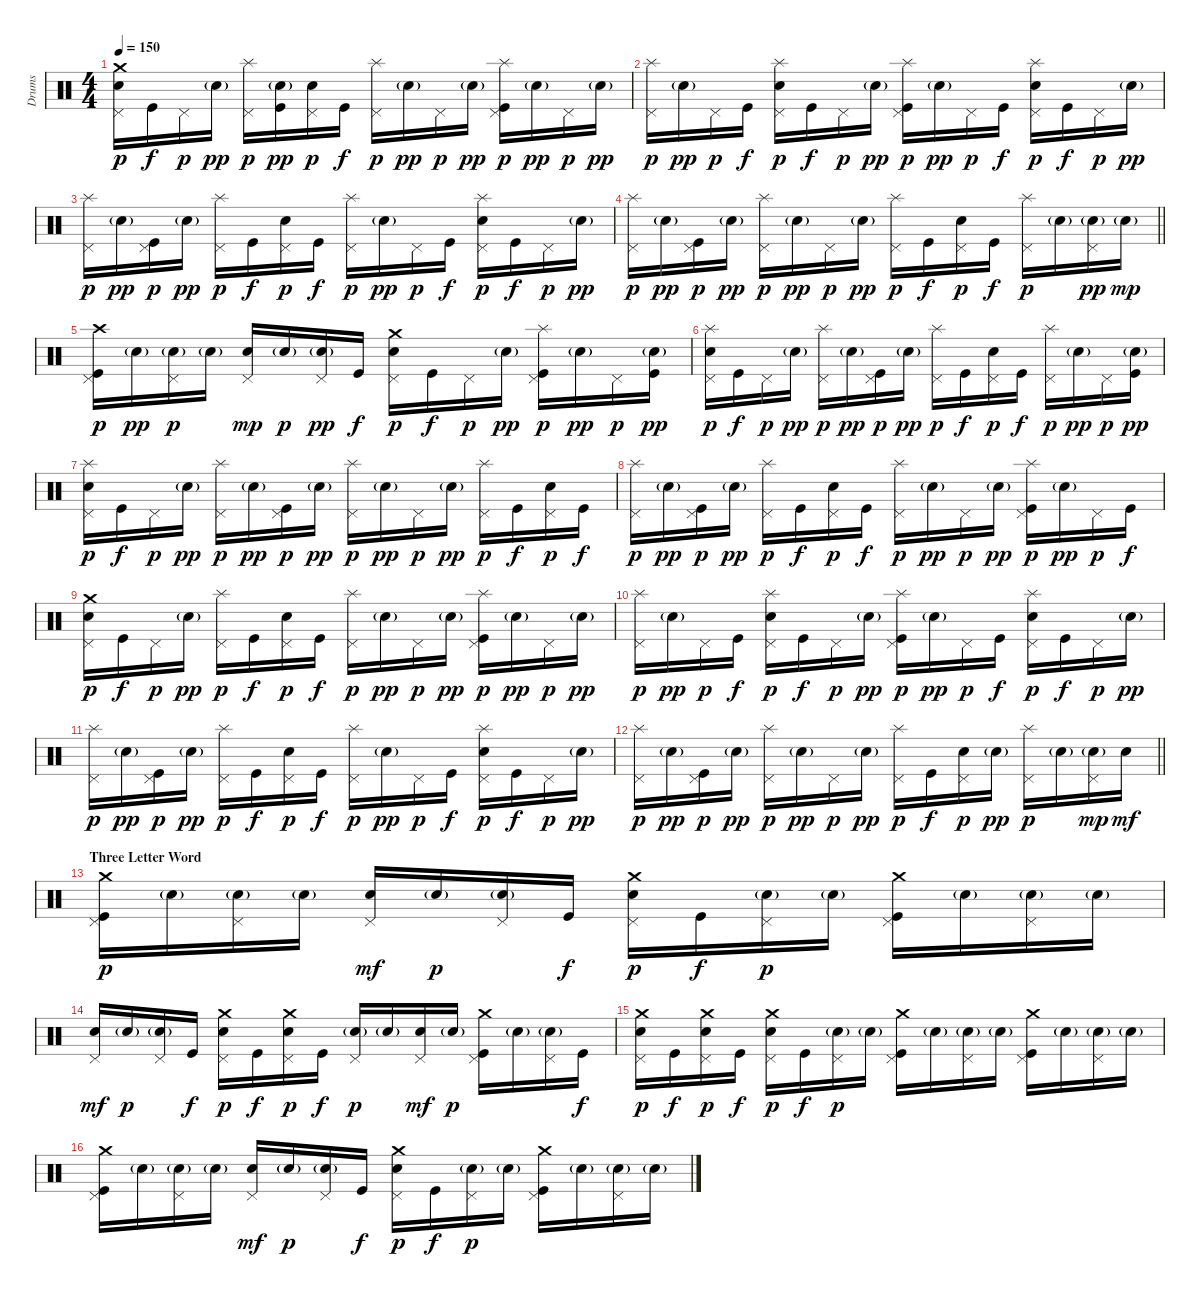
\track ("Drums" "Drums") {instrument percussion}
\staff {score}
\articulation defaults
\ts (4 4)
\tempo 150
\clef neutral
\ks c
("Crash medium (hit)" "Pedal Hi-Hat (hit)" "Electric Snare (hit)").16{dy p} "Kick (hit)".16{dy f} "Pedal Hi-Hat (hit)".16{dy p} "Electric Snare (hit)"{g}.16{dy pp} ("Splash (hit)" "Pedal Hi-Hat (hit)").16{dy p} ("Electric Snare (hit)"{g} "Kick (hit)").16{dy pp} ("Pedal Hi-Hat (hit)" "Electric Snare (hit)").16{dy p} "Kick (hit)".16{dy f} ("Splash (hit)" "Pedal Hi-Hat (hit)").16{dy p} "Electric Snare (hit)"{g}.16{dy pp} "Pedal Hi-Hat (hit)".16{dy p} "Electric Snare (hit)"{g}.16{dy pp} ("Splash (hit)" "Pedal Hi-Hat (hit)" "Kick (hit)").16{dy p} "Electric Snare (hit)"{g}.16{dy pp} "Pedal Hi-Hat (hit)".16{dy p} "Electric Snare (hit)"{g}.16{dy pp} |
("Splash (hit)" "Pedal Hi-Hat (hit)").16{dy p} "Electric Snare (hit)"{g}.16{dy pp} "Pedal Hi-Hat (hit)".16{dy p} "Kick (hit)".16{dy f} ("Splash (hit)" "Pedal Hi-Hat (hit)" "Electric Snare (hit)").16{dy p} "Kick (hit)".16{dy f} "Pedal Hi-Hat (hit)".16{dy p} "Electric Snare (hit)"{g}.16{dy pp} ("Splash (hit)" "Pedal Hi-Hat (hit)" "Kick (hit)").16{dy p} "Electric Snare (hit)"{g}.16{dy pp} "Pedal Hi-Hat (hit)".16{dy p} "Kick (hit)".16{dy f} ("Splash (hit)" "Pedal Hi-Hat (hit)" "Electric Snare (hit)").16{dy p} "Kick (hit)".16{dy f} "Pedal Hi-Hat (hit)".16{dy p} "Electric Snare (hit)"{g}.16{dy pp} |
("Splash (hit)" "Pedal Hi-Hat (hit)").16{dy p} "Electric Snare (hit)"{g}.16{dy pp} ("Pedal Hi-Hat (hit)" "Kick (hit)").16{dy p} "Electric Snare (hit)"{g}.16{dy pp} ("Splash (hit)" "Pedal Hi-Hat (hit)").16{dy p} "Kick (hit)".16{dy f} ("Pedal Hi-Hat (hit)" "Electric Snare (hit)").16{dy p} "Kick (hit)".16{dy f} ("Splash (hit)" "Pedal Hi-Hat (hit)").16{dy p} "Electric Snare (hit)"{g}.16{dy pp} "Pedal Hi-Hat (hit)".16{dy p} "Kick (hit)".16{dy f} ("Splash (hit)" "Pedal Hi-Hat (hit)" "Electric Snare (hit)").16{dy p} "Kick (hit)".16{dy f} "Pedal Hi-Hat (hit)".16{dy p} "Electric Snare (hit)"{g}.16{dy pp} |
\barLineRight lightlight
("Splash (hit)" "Pedal Hi-Hat (hit)").16{dy p} "Electric Snare (hit)"{g}.16{dy pp} ("Pedal Hi-Hat (hit)" "Kick (hit)").16{dy p} "Electric Snare (hit)"{g}.16{dy pp} ("Splash (hit)" "Pedal Hi-Hat (hit)").16{dy p} "Electric Snare (hit)"{g}.16{dy pp} "Pedal Hi-Hat (hit)".16{dy p} "Electric Snare (hit)"{g}.16{dy pp} ("Splash (hit)" "Pedal Hi-Hat (hit)").16{dy p} "Kick (hit)".16{dy f} ("Pedal Hi-Hat (hit)" "Electric Snare (hit)").16{dy p} "Kick (hit)".16{dy f} ("Splash (hit)" "Pedal Hi-Hat (hit)").16{dy p} "Electric Snare (hit)"{g}.16 ("Pedal Hi-Hat (hit)" "Electric Snare (hit)"{g}).16{dy pp} "Electric Snare (hit)"{g}.16{dy mp} |
("Crash high (hit)" "Pedal Hi-Hat (hit)" "Kick (hit)").16{dy p} "Electric Snare (hit)"{g}.16{dy pp} ("Pedal Hi-Hat (hit)" "Electric Snare (hit)"{g}).16{dy p} "Electric Snare (hit)"{g}.16 ("Pedal Hi-Hat (hit)" "Electric Snare (hit)").16{dy mp} "Electric Snare (hit)"{g}.16{dy p} ("Pedal Hi-Hat (hit)" "Electric Snare (hit)"{g}).16{dy pp} "Kick (hit)".16{dy f} ("Crash medium (hit)" "Pedal Hi-Hat (hit)" "Electric Snare (hit)").16{dy p} "Kick (hit)".16{dy f} "Pedal Hi-Hat (hit)".16{dy p} "Electric Snare (hit)"{g}.16{dy pp} ("Splash (hit)" "Pedal Hi-Hat (hit)" "Kick (hit)").16{dy p} "Electric Snare (hit)"{g}.16{dy pp} "Pedal Hi-Hat (hit)".16{dy p} ("Electric Snare (hit)"{g} "Kick (hit)").16{dy pp} |
("Splash (hit)" "Pedal Hi-Hat (hit)" "Electric Snare (hit)").16{dy p} "Kick (hit)".16{dy f} "Pedal Hi-Hat (hit)".16{dy p} "Electric Snare (hit)"{g}.16{dy pp} ("Splash (hit)" "Pedal Hi-Hat (hit)").16{dy p} "Electric Snare (hit)"{g}.16{dy pp} ("Pedal Hi-Hat (hit)" "Kick (hit)").16{dy p} "Electric Snare (hit)"{g}.16{dy pp} ("Splash (hit)" "Pedal Hi-Hat (hit)").16{dy p} "Kick (hit)".16{dy f} ("Pedal Hi-Hat (hit)" "Electric Snare (hit)").16{dy p} "Kick (hit)".16{dy f} ("Splash (hit)" "Pedal Hi-Hat (hit)").16{dy p} "Electric Snare (hit)"{g}.16{dy pp} "Pedal Hi-Hat (hit)".16{dy p} ("Electric Snare (hit)"{g} "Kick (hit)").16{dy pp} |
("Splash (hit)" "Pedal Hi-Hat (hit)" "Electric Snare (hit)").16{dy p} "Kick (hit)".16{dy f} "Pedal Hi-Hat (hit)".16{dy p} "Electric Snare (hit)"{g}.16{dy pp} ("Splash (hit)" "Pedal Hi-Hat (hit)").16{dy p} "Electric Snare (hit)"{g}.16{dy pp} ("Pedal Hi-Hat (hit)" "Kick (hit)").16{dy p} "Electric Snare (hit)"{g}.16{dy pp} ("Splash (hit)" "Pedal Hi-Hat (hit)").16{dy p} "Electric Snare (hit)"{g}.16{dy pp} "Pedal Hi-Hat (hit)".16{dy p} "Electric Snare (hit)"{g}.16{dy pp} ("Splash (hit)" "Pedal Hi-Hat (hit)").16{dy p} "Kick (hit)".16{dy f} ("Pedal Hi-Hat (hit)" "Electric Snare (hit)").16{dy p} "Kick (hit)".16{dy f} |
("Splash (hit)" "Pedal Hi-Hat (hit)").16{dy p} "Electric Snare (hit)"{g}.16{dy pp} ("Pedal Hi-Hat (hit)" "Kick (hit)").16{dy p} "Electric Snare (hit)"{g}.16{dy pp} ("Splash (hit)" "Pedal Hi-Hat (hit)").16{dy p} "Kick (hit)".16{dy f} ("Pedal Hi-Hat (hit)" "Electric Snare (hit)").16{dy p} "Kick (hit)".16{dy f} ("Splash (hit)" "Pedal Hi-Hat (hit)").16{dy p} "Electric Snare (hit)"{g}.16{dy pp} "Pedal Hi-Hat (hit)".16{dy p} "Electric Snare (hit)"{g}.16{dy pp} ("Splash (hit)" "Pedal Hi-Hat (hit)" "Kick (hit)").16{dy p} "Electric Snare (hit)"{g}.16{dy pp} "Pedal Hi-Hat (hit)".16{dy p} "Kick (hit)".16{dy f} |
("Crash medium (hit)" "Pedal Hi-Hat (hit)" "Electric Snare (hit)").16{dy p} "Kick (hit)".16{dy f} "Pedal Hi-Hat (hit)".16{dy p} "Electric Snare (hit)"{g}.16{dy pp} ("Splash (hit)" "Pedal Hi-Hat (hit)").16{dy p} "Kick (hit)".16{dy f} ("Pedal Hi-Hat (hit)" "Electric Snare (hit)").16{dy p} "Kick (hit)".16{dy f} ("Splash (hit)" "Pedal Hi-Hat (hit)").16{dy p} "Electric Snare (hit)"{g}.16{dy pp} "Pedal Hi-Hat (hit)".16{dy p} "Electric Snare (hit)"{g}.16{dy pp} ("Splash (hit)" "Pedal Hi-Hat (hit)" "Kick (hit)").16{dy p} "Electric Snare (hit)"{g}.16{dy pp} "Pedal Hi-Hat (hit)".16{dy p} "Electric Snare (hit)"{g}.16{dy pp} |
("Splash (hit)" "Pedal Hi-Hat (hit)").16{dy p} "Electric Snare (hit)"{g}.16{dy pp} "Pedal Hi-Hat (hit)".16{dy p} "Kick (hit)".16{dy f} ("Splash (hit)" "Pedal Hi-Hat (hit)" "Electric Snare (hit)").16{dy p} "Kick (hit)".16{dy f} "Pedal Hi-Hat (hit)".16{dy p} "Electric Snare (hit)"{g}.16{dy pp} ("Splash (hit)" "Pedal Hi-Hat (hit)" "Kick (hit)").16{dy p} "Electric Snare (hit)"{g}.16{dy pp} "Pedal Hi-Hat (hit)".16{dy p} "Kick (hit)".16{dy f} ("Splash (hit)" "Pedal Hi-Hat (hit)" "Electric Snare (hit)").16{dy p} "Kick (hit)".16{dy f} "Pedal Hi-Hat (hit)".16{dy p} "Electric Snare (hit)"{g}.16{dy pp} |
("Splash (hit)" "Pedal Hi-Hat (hit)").16{dy p} "Electric Snare (hit)"{g}.16{dy pp} ("Pedal Hi-Hat (hit)" "Kick (hit)").16{dy p} "Electric Snare (hit)"{g}.16{dy pp} ("Splash (hit)" "Pedal Hi-Hat (hit)").16{dy p} "Kick (hit)".16{dy f} ("Pedal Hi-Hat (hit)" "Electric Snare (hit)").16{dy p} "Kick (hit)".16{dy f} ("Splash (hit)" "Pedal Hi-Hat (hit)").16{dy p} "Electric Snare (hit)"{g}.16{dy pp} "Pedal Hi-Hat (hit)".16{dy p} "Kick (hit)".16{dy f} ("Splash (hit)" "Pedal Hi-Hat (hit)" "Electric Snare (hit)").16{dy p} "Kick (hit)".16{dy f} "Pedal Hi-Hat (hit)".16{dy p} "Electric Snare (hit)"{g}.16{dy pp} |
\barLineRight lightlight
("Splash (hit)" "Pedal Hi-Hat (hit)").16{dy p} "Electric Snare (hit)"{g}.16{dy pp} ("Pedal Hi-Hat (hit)" "Kick (hit)").16{dy p} "Electric Snare (hit)"{g}.16{dy pp} ("Splash (hit)" "Pedal Hi-Hat (hit)").16{dy p} "Electric Snare (hit)"{g}.16{dy pp} "Pedal Hi-Hat (hit)".16{dy p} "Electric Snare (hit)"{g}.16{dy pp} ("Splash (hit)" "Pedal Hi-Hat (hit)").16{dy p} "Kick (hit)".16{dy f} ("Pedal Hi-Hat (hit)" "Electric Snare (hit)").16{dy p} "Electric Snare (hit)"{g}.16{dy pp} ("Splash (hit)" "Pedal Hi-Hat (hit)").16{dy p} "Electric Snare (hit)"{g}.16 ("Pedal Hi-Hat (hit)" "Electric Snare (hit)"{g}).16{dy mp} "Electric Snare (hit)".16{dy mf} |
\section ("" "Three Letter Word")
("Crash medium (hit)" "Pedal Hi-Hat (hit)" "Kick (hit)").16{dy p} "Electric Snare (hit)"{g}.16 ("Pedal Hi-Hat (hit)" "Electric Snare (hit)"{g}).16 "Electric Snare (hit)"{g}.16 ("Pedal Hi-Hat (hit)" "Electric Snare (hit)").16{dy mf} "Electric Snare (hit)"{g}.16{dy p} ("Pedal Hi-Hat (hit)" "Electric Snare (hit)"{g}).16 "Kick (hit)".16{dy f} ("Crash medium (hit)" "Pedal Hi-Hat (hit)" "Electric Snare (hit)").16{dy p} "Kick (hit)".16{dy f} ("Pedal Hi-Hat (hit)" "Electric Snare (hit)"{g}).16{dy p} "Electric Snare (hit)"{g}.16 ("Crash medium (hit)" "Pedal Hi-Hat (hit)" "Kick (hit)").16 "Electric Snare (hit)"{g}.16 ("Pedal Hi-Hat (hit)" "Electric Snare (hit)"{g}).16 "Electric Snare (hit)"{g}.16 |
("Pedal Hi-Hat (hit)" "Electric Snare (hit)").16{dy mf} "Electric Snare (hit)"{g}.16{dy p} ("Pedal Hi-Hat (hit)" "Electric Snare (hit)"{g}).16 "Kick (hit)".16{dy f} ("Crash medium (hit)" "Pedal Hi-Hat (hit)" "Electric Snare (hit)").16{dy p} "Kick (hit)".16{dy f} ("Crash medium (hit)" "Pedal Hi-Hat (hit)" "Electric Snare (hit)").16{dy p} "Kick (hit)".16{dy f} ("Pedal Hi-Hat (hit)" "Electric Snare (hit)"{g}).16{dy p} "Electric Snare (hit)"{g}.16 ("Pedal Hi-Hat (hit)" "Electric Snare (hit)").16{dy mf} "Electric Snare (hit)"{g}.16{dy p} ("Crash medium (hit)" "Pedal Hi-Hat (hit)" "Kick (hit)").16 "Electric Snare (hit)"{g}.16 ("Pedal Hi-Hat (hit)" "Electric Snare (hit)"{g}).16 "Kick (hit)".16{dy f} |
("Crash medium (hit)" "Pedal Hi-Hat (hit)" "Electric Snare (hit)").16{dy p} "Kick (hit)".16{dy f} ("Crash medium (hit)" "Pedal Hi-Hat (hit)" "Electric Snare (hit)").16{dy p} "Kick (hit)".16{dy f} ("Crash medium (hit)" "Pedal Hi-Hat (hit)" "Electric Snare (hit)").16{dy p} "Kick (hit)".16{dy f} ("Pedal Hi-Hat (hit)" "Electric Snare (hit)"{g}).16{dy p} "Electric Snare (hit)"{g}.16 ("Crash medium (hit)" "Pedal Hi-Hat (hit)" "Kick (hit)").16 "Electric Snare (hit)"{g}.16 ("Pedal Hi-Hat (hit)" "Electric Snare (hit)"{g}).16 "Electric Snare (hit)"{g}.16 ("Crash medium (hit)" "Pedal Hi-Hat (hit)" "Kick (hit)").16 "Electric Snare (hit)"{g}.16 ("Pedal Hi-Hat (hit)" "Electric Snare (hit)"{g}).16 "Electric Snare (hit)"{g}.16 |
("Crash medium (hit)" "Pedal Hi-Hat (hit)" "Kick (hit)").16 "Electric Snare (hit)"{g}.16 ("Pedal Hi-Hat (hit)" "Electric Snare (hit)"{g}).16 "Electric Snare (hit)"{g}.16 ("Pedal Hi-Hat (hit)" "Electric Snare (hit)").16{dy mf} "Electric Snare (hit)"{g}.16{dy p} ("Pedal Hi-Hat (hit)" "Electric Snare (hit)"{g}).16 "Kick (hit)".16{dy f} ("Crash medium (hit)" "Pedal Hi-Hat (hit)" "Electric Snare (hit)").16{dy p} "Kick (hit)".16{dy f} ("Pedal Hi-Hat (hit)" "Electric Snare (hit)"{g}).16{dy p} "Electric Snare (hit)"{g}.16 ("Crash medium (hit)" "Pedal Hi-Hat (hit)" "Kick (hit)").16 "Electric Snare (hit)"{g}.16 ("Pedal Hi-Hat (hit)" "Electric Snare (hit)"{g}).16 "Electric Snare (hit)"{g}.16
